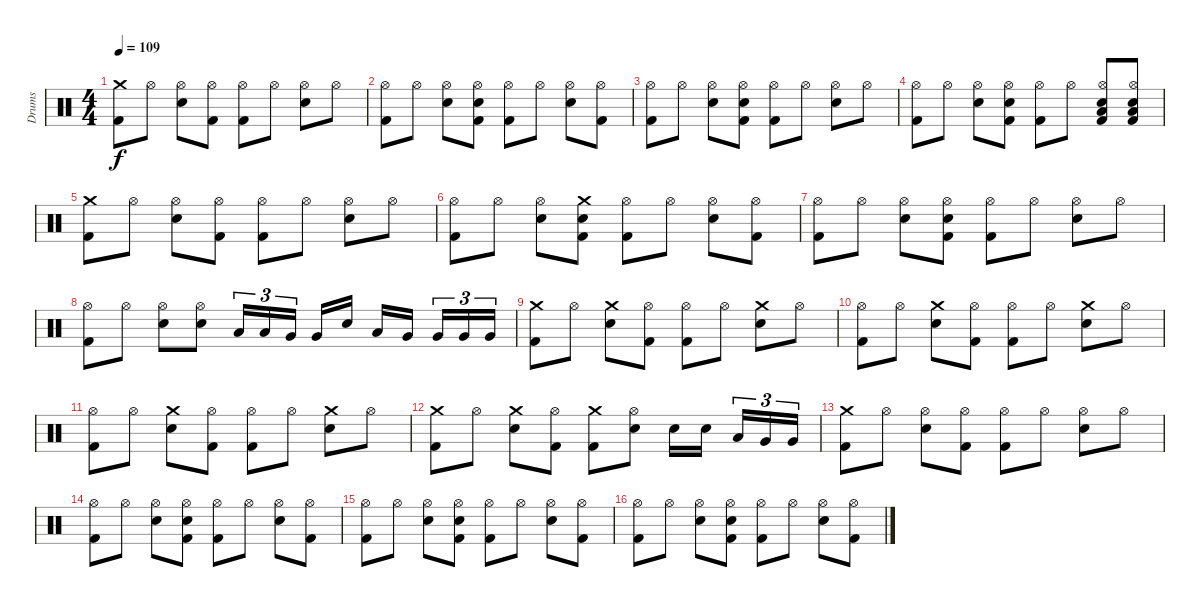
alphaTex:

\track ("Drums" "Drums") {instrument percussion}
\staff {score}
\articulation defaults
\ts (4 4)
\tempo 109
\clef neutral
\ks c
("Crash medium (hit)" "Kick (hit) 2").8{dy f} "Hi-Hat (open)".8 ("Hi-Hat (open)" "Electric Snare (hit)").8 ("Hi-Hat (open)" "Kick (hit) 2").8 ("Hi-Hat (open)" "Kick (hit) 2").8 "Hi-Hat (open)".8 ("Hi-Hat (open)" "Electric Snare (hit)").8 "Hi-Hat (open)".8 |
("Hi-Hat (open)" "Kick (hit) 2").8 "Hi-Hat (open)".8 ("Hi-Hat (open)" "Electric Snare (hit)").8 ("Hi-Hat (open)" "Electric Snare (hit)" "Kick (hit) 2").8 ("Hi-Hat (open)" "Kick (hit) 2").8 "Hi-Hat (open)".8 ("Hi-Hat (open)" "Electric Snare (hit)").8 ("Hi-Hat (open)" "Kick (hit) 2").8 |
("Hi-Hat (open)" "Kick (hit) 2").8 "Hi-Hat (open)".8 ("Hi-Hat (open)" "Electric Snare (hit)").8 ("Hi-Hat (open)" "Electric Snare (hit)" "Kick (hit) 2").8 ("Hi-Hat (open)" "Kick (hit) 2").8 "Hi-Hat (open)".8 ("Hi-Hat (open)" "Electric Snare (hit)").8 "Hi-Hat (open)".8 |
("Hi-Hat (open)" "Kick (hit) 2").8 "Hi-Hat (open)".8 ("Hi-Hat (open)" "Electric Snare (hit)").8 ("Hi-Hat (open)" "Electric Snare (hit)" "Kick (hit) 2").8 ("Hi-Hat (open)" "Kick (hit) 2").8 "Hi-Hat (open)".8 ("Hi-Hat (open)" "Low Floor Tom (hit)" "Electric Snare (hit)" "Kick (hit) 2").8 ("Hi-Hat (open)" "Low Floor Tom (hit)" "Electric Snare (hit)" "Kick (hit) 2").8 |
("Crash medium (hit)" "Kick (hit) 2").8 "Hi-Hat (open)".8 ("Hi-Hat (open)" "Electric Snare (hit)").8 ("Hi-Hat (open)" "Kick (hit) 2").8 ("Hi-Hat (open)" "Kick (hit) 2").8 "Hi-Hat (open)".8 ("Hi-Hat (open)" "Electric Snare (hit)").8 "Hi-Hat (open)".8 |
("Hi-Hat (open)" "Kick (hit) 2").8 "Hi-Hat (open)".8 ("Hi-Hat (open)" "Electric Snare (hit)").8 ("Crash medium (hit)" "Electric Snare (hit)" "Kick (hit) 2").8 ("Hi-Hat (open)" "Kick (hit) 2").8 "Hi-Hat (open)".8 ("Hi-Hat (open)" "Electric Snare (hit)").8 ("Hi-Hat (open)" "Kick (hit) 2").8 |
("Hi-Hat (open)" "Kick (hit) 2").8 "Hi-Hat (open)".8 ("Hi-Hat (open)" "Electric Snare (hit)").8 ("Hi-Hat (open)" "Electric Snare (hit)" "Kick (hit) 2").8 ("Hi-Hat (open)" "Kick (hit) 2").8 "Hi-Hat (open)".8 ("Hi-Hat (open)" "Electric Snare (hit)").8 "Hi-Hat (open)".8 |
("Hi-Hat (open)" "Kick (hit) 2").8 "Hi-Hat (open)".8 ("Hi-Hat (open)" "Electric Snare (hit)").8 ("Hi-Hat (open)" "Electric Snare (hit)").8 "Low Tom (hit)".16{tu (3 2)} "Low Tom (hit)".16{tu (3 2)} "Very Low Tom (hit)".16{tu (3 2)} "Very Low Tom (hit)".16 "Electric Snare (hit)".16 "Low Tom (hit)".16 "Very Low Tom (hit)".16 "Very Low Tom (hit)".16{tu (3 2)} "Very Low Tom (hit)".16{tu (3 2)} "Very Low Tom (hit)".16{tu (3 2)} |
("Crash medium (hit)" "Kick (hit) 2").8 "Hi-Hat (open)".8 ("Crash medium (hit)" "Electric Snare (hit)").8 ("Hi-Hat (open)" "Kick (hit) 2").8 ("Hi-Hat (open)" "Kick (hit) 2").8 "Hi-Hat (open)".8 ("Crash medium (hit)" "Electric Snare (hit)").8 "Hi-Hat (open)".8 |
("Hi-Hat (open)" "Kick (hit) 2").8 "Hi-Hat (open)".8 ("Crash medium (hit)" "Electric Snare (hit)").8 ("Hi-Hat (open)" "Kick (hit) 2").8 ("Hi-Hat (open)" "Kick (hit) 2").8 "Hi-Hat (open)".8 ("Crash medium (hit)" "Electric Snare (hit)").8 "Hi-Hat (open)".8 |
("Hi-Hat (open)" "Kick (hit) 2").8 "Hi-Hat (open)".8 ("Crash medium (hit)" "Electric Snare (hit)").8 ("Hi-Hat (open)" "Kick (hit) 2").8 ("Hi-Hat (open)" "Kick (hit) 2").8 "Hi-Hat (open)".8 ("Crash medium (hit)" "Electric Snare (hit)").8 "Hi-Hat (open)".8 |
("Crash medium (hit)" "Kick (hit) 2").8 "Hi-Hat (open)".8 ("Crash medium (hit)" "Electric Snare (hit)").8 ("Hi-Hat (open)" "Kick (hit) 2").8 ("Crash medium (hit)" "Kick (hit) 2").8 ("Hi-Hat (open)" "Electric Snare (hit)").8 "Electric Snare (hit)".16 "Electric Snare (hit)".16 "Low Tom (hit)".16{tu (3 2)} "Very Low Tom (hit)".16{tu (3 2)} "Very Low Tom (hit)".16{tu (3 2)} |
("Crash medium (hit)" "Kick (hit) 2").8 "Hi-Hat (open)".8 ("Hi-Hat (open)" "Electric Snare (hit)").8 ("Hi-Hat (open)" "Kick (hit) 2").8 ("Hi-Hat (open)" "Kick (hit) 2").8 "Hi-Hat (open)".8 ("Hi-Hat (open)" "Electric Snare (hit)").8 "Hi-Hat (open)".8 |
("Hi-Hat (open)" "Kick (hit) 2").8 "Hi-Hat (open)".8 ("Hi-Hat (open)" "Electric Snare (hit)").8 ("Hi-Hat (open)" "Electric Snare (hit)" "Kick (hit) 2").8 ("Hi-Hat (open)" "Kick (hit) 2").8 "Hi-Hat (open)".8 ("Hi-Hat (open)" "Electric Snare (hit)").8 ("Hi-Hat (open)" "Kick (hit) 2").8 |
("Hi-Hat (open)" "Kick (hit) 2").8 "Hi-Hat (open)".8 ("Hi-Hat (open)" "Electric Snare (hit)").8 ("Hi-Hat (open)" "Electric Snare (hit)" "Kick (hit) 2").8 ("Hi-Hat (open)" "Kick (hit) 2").8 "Hi-Hat (open)".8 ("Hi-Hat (open)" "Electric Snare (hit)").8 ("Hi-Hat (open)" "Kick (hit) 2").8 |
("Hi-Hat (open)" "Kick (hit) 2").8 "Hi-Hat (open)".8 ("Hi-Hat (open)" "Electric Snare (hit)").8 ("Hi-Hat (open)" "Electric Snare (hit)" "Kick (hit) 2").8 ("Hi-Hat (open)" "Kick (hit) 2").8 "Hi-Hat (open)".8 ("Hi-Hat (open)" "Electric Snare (hit)").8 ("Hi-Hat (open)" "Kick (hit) 2").8
